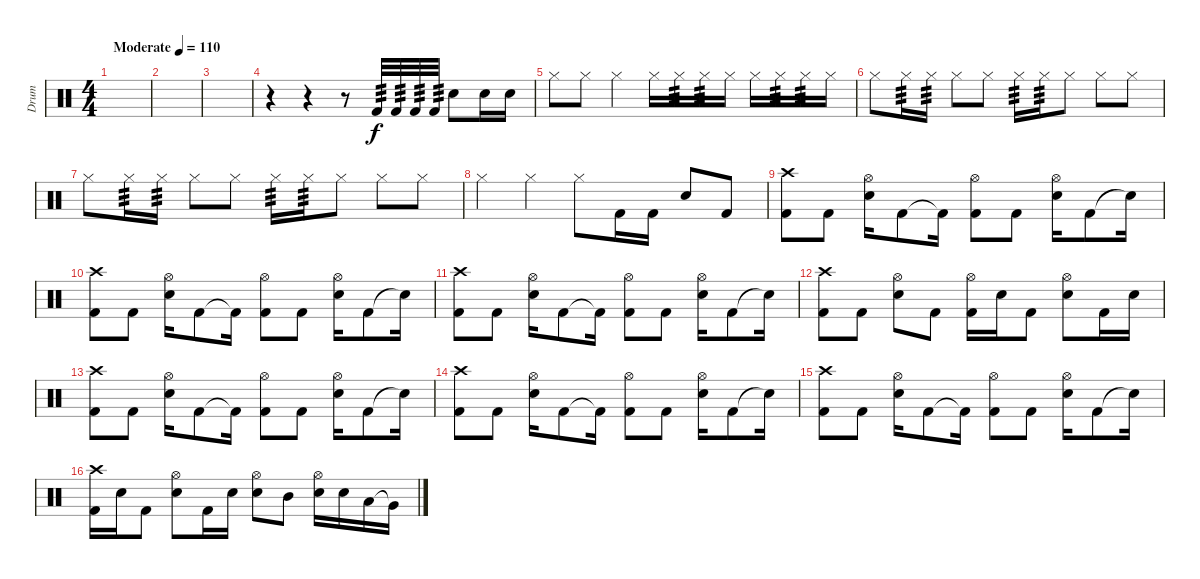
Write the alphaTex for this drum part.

\track ("Drum" "Drum") {instrument percussion}
\staff {score}
\articulation defaults
\ts (4 4)
\tempo (110 "Moderate")
\clef neutral
\ks c
|
|
|
r.4{volume 14} r.4 r.8 "Kick (hit) 2".32{tp 3} "Kick (hit) 2".32{tp 3} "Kick (hit) 2".32{tp 3} "Kick (hit) 2".32{tp 3} "Electric Snare (hit)".8 "Electric Snare (hit)".16 "Electric Snare (hit)".16 |
"Hi-Hat (closed)".8 "Hi-Hat (closed)".8 "Hi-Hat (closed)".4 "Hi-Hat (closed)".16 "Hi-Hat (closed)".16{tp 3} "Hi-Hat (closed)".16{tp 3} "Hi-Hat (closed)".16 "Hi-Hat (closed)".16 "Hi-Hat (closed)".16{tp 3} "Hi-Hat (closed)".16{tp 3} "Hi-Hat (closed)".16 |
"Hi-Hat (closed)".8 "Hi-Hat (closed)".16{tp 3} "Hi-Hat (closed)".16{tp 3} "Hi-Hat (closed)".8 "Hi-Hat (closed)".8 "Hi-Hat (closed)".16{tp 3} "Hi-Hat (closed)".16{tp 3} "Hi-Hat (closed)".8 "Hi-Hat (closed)".8 "Hi-Hat (closed)".8 |
"Hi-Hat (closed)".8 "Hi-Hat (closed)".16{tp 3} "Hi-Hat (closed)".16{tp 3} "Hi-Hat (closed)".8 "Hi-Hat (closed)".8 "Hi-Hat (closed)".16{tp 3} "Hi-Hat (closed)".16{tp 3} "Hi-Hat (closed)".8 "Hi-Hat (closed)".8 "Hi-Hat (closed)".8 |
"Hi-Hat (closed)".4 "Hi-Hat (closed)".4 "Hi-Hat (closed)".8 "Kick (hit) 2".16 "Kick (hit) 2".16 "Electric Snare (hit)".8 "Kick (hit) 2".8 |
("Crash high (hit)" "Kick (hit) 2").8{volume 12} "Kick (hit) 2".8 ("Hi-Hat (open)" "Electric Snare (hit)").16 "Kick (hit) 2".8 "Kick (hit) 2"{t}.16 ("Hi-Hat (open)" "Kick (hit) 2").8 "Kick (hit) 2".8 ("Hi-Hat (open)" "Electric Snare (hit)").16 "Kick (hit) 2".8 "Snare (hit)"{t}.16 |
("Crash high (hit)" "Kick (hit) 2").8 "Kick (hit) 2".8 ("Hi-Hat (open)" "Electric Snare (hit)").16 "Kick (hit) 2".8 "Kick (hit) 2"{t}.16 ("Hi-Hat (open)" "Kick (hit) 2").8 "Kick (hit) 2".8 ("Hi-Hat (open)" "Electric Snare (hit)").16 "Kick (hit) 2".8 "Snare (hit)"{t}.16 |
("Crash high (hit)" "Kick (hit) 2").8 "Kick (hit) 2".8 ("Hi-Hat (open)" "Electric Snare (hit)").16 "Kick (hit) 2".8 "Kick (hit) 2"{t}.16 ("Hi-Hat (open)" "Kick (hit) 2").8 "Kick (hit) 2".8 ("Hi-Hat (open)" "Electric Snare (hit)").16 "Kick (hit) 2".8 "Snare (hit)"{t}.16 |
("Crash high (hit)" "Kick (hit) 2").8 "Kick (hit) 2".8 ("Hi-Hat (open)" "Electric Snare (hit)").8 "Kick (hit) 2".8 ("Hi-Hat (open)" "Kick (hit) 2").16 "Electric Snare (hit)".16 "Kick (hit) 2".8 ("Hi-Hat (open)" "Electric Snare (hit)").8 "Kick (hit) 2".16 "Electric Snare (hit)".16 |
("Crash high (hit)" "Kick (hit) 2").8 "Kick (hit) 2".8 ("Hi-Hat (open)" "Electric Snare (hit)").16 "Kick (hit) 2".8 "Kick (hit) 2"{t}.16 ("Hi-Hat (open)" "Kick (hit) 2").8 "Kick (hit) 2".8 ("Hi-Hat (open)" "Electric Snare (hit)").16 "Kick (hit) 2".8 "Snare (hit)"{t}.16 |
("Crash high (hit)" "Kick (hit) 2").8 "Kick (hit) 2".8 ("Hi-Hat (open)" "Electric Snare (hit)").16 "Kick (hit) 2".8 "Kick (hit) 2"{t}.16 ("Hi-Hat (open)" "Kick (hit) 2").8 "Kick (hit) 2".8 ("Hi-Hat (open)" "Electric Snare (hit)").16 "Kick (hit) 2".8 "Snare (hit)"{t}.16 |
("Crash high (hit)" "Kick (hit) 2").8 "Kick (hit) 2".8 ("Hi-Hat (open)" "Electric Snare (hit)").16 "Kick (hit) 2".8 "Kick (hit) 2"{t}.16 ("Hi-Hat (open)" "Kick (hit) 2").8 "Kick (hit) 2".8 ("Hi-Hat (open)" "Electric Snare (hit)").16 "Kick (hit) 2".8 "Snare (hit)"{t}.16 |
("Crash high (hit)" "Kick (hit) 2").16 "Electric Snare (hit)".16 "Kick (hit) 2".8 ("Hi-Hat (open)" "Electric Snare (hit)").8 "Kick (hit) 2".16 "Electric Snare (hit)".16 ("Hi-Hat (open)" "Electric Snare (hit)").8 "Mid Tom (hit)".8 ("Hi-Hat (open)" "Electric Snare (hit)").16 "Electric Snare (hit)".16 "Low Tom (hit)".16 "Very Low Tom (hit)"{t}.16
